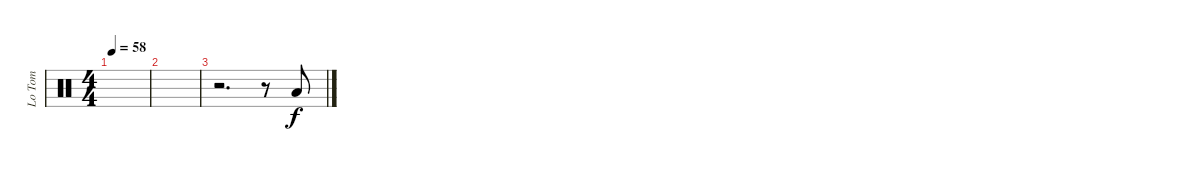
\track ("Lo Tom" "Lo Tom") {instrument percussion}
\staff {score}
\articulation defaults
\ts (4 4)
\tempo 58
\clef neutral
\ks c
|
|
r.2{d} r.8 "Low Tom (hit)".8{dy f}
